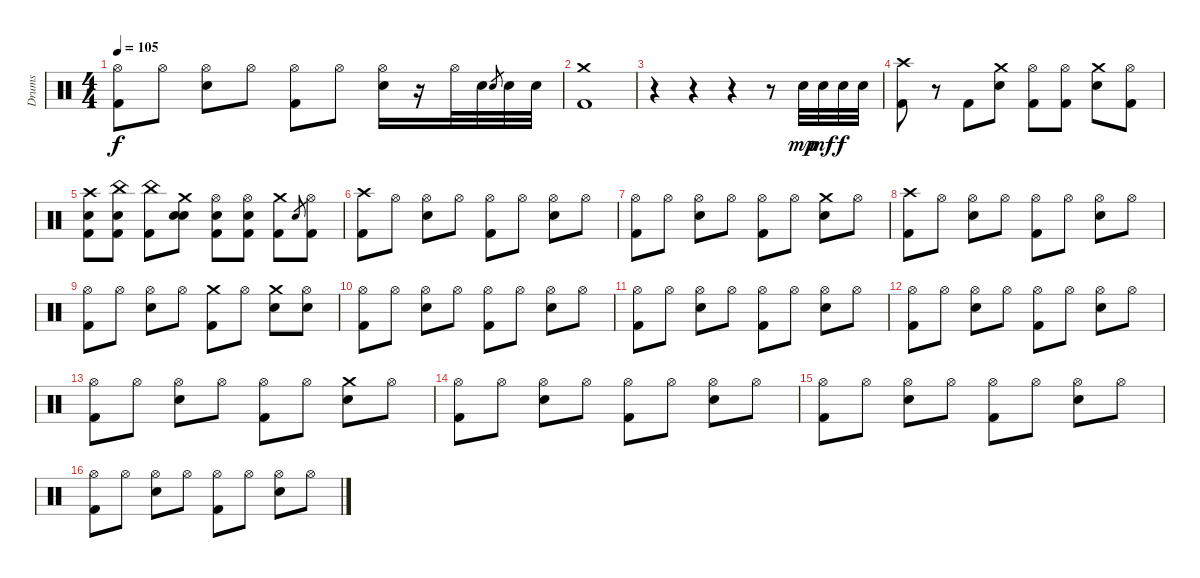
\track ("Drums" "Drums") {instrument percussion}
\staff {score}
\articulation defaults
\ts (4 4)
\tempo 105
\clef neutral
\ks c
("Hi-Hat (open)" "Kick (hit) 2").8{dy f} "Hi-Hat (open)".8 ("Hi-Hat (open)" "Snare (hit) 2").8 "Hi-Hat (open)".8 ("Hi-Hat (open)" "Kick (hit) 2").8 "Hi-Hat (open)".8 ("Hi-Hat (open)" "Snare (hit) 2").16 r.16 "Hi-Hat (open)".32 "Snare (hit) 2".32 "Snare (hit) 2".8{gr} "Snare (hit) 2".32 "Snare (hit) 2".32 |
("Crash medium (hit)" "Kick (hit) 2").1 |
r.4 r.4 r.4 r.8 "Snare (hit) 2".32{dy mp} "Snare (hit) 2".32{dy mf} "Snare (hit) 2".32{dy f} "Snare (hit) 2".32 |
("Crash high (hit)" "Kick (hit) 2").8 r.8 "Kick (hit) 2".8 ("Crash medium (hit)" "Snare (hit) 2").8 ("Hi-Hat (open)" "Kick (hit) 2").8 ("Hi-Hat (open)" "Kick (hit) 2").8 ("Crash medium (hit)" "Snare (hit) 2").8 ("Hi-Hat (open)" "Kick (hit) 2").8 |
("Crash high (hit)" "Snare (hit) 2" "Kick (hit) 2").8 ("China (hit)" "Snare (hit) 2" "Kick (hit) 2").8 ("China (hit)" "Kick (hit) 2").8 ("Crash medium (hit)" "Snare (hit) 2" "Snare (hit) 2").8 ("Hi-Hat (open)" "Snare (hit) 2" "Kick (hit) 2").8 ("Hi-Hat (open)" "Snare (hit) 2" "Kick (hit) 2").8 ("Crash medium (hit)" "Kick (hit) 2").8 "Snare (hit) 2".8{gr} ("Hi-Hat (open)" "Kick (hit) 2").8 |
("Crash high (hit)" "Kick (hit) 2").8 "Hi-Hat (open)".8 ("Hi-Hat (open)" "Snare (hit) 2").8 "Hi-Hat (open)".8 ("Hi-Hat (open)" "Kick (hit) 2").8 "Hi-Hat (open)".8 ("Hi-Hat (open)" "Snare (hit) 2").8 "Hi-Hat (open)".8 |
("Hi-Hat (open)" "Kick (hit) 2").8 "Hi-Hat (open)".8 ("Hi-Hat (open)" "Snare (hit) 2").8 "Hi-Hat (open)".8 ("Hi-Hat (open)" "Kick (hit) 2").8 "Hi-Hat (open)".8 ("Crash medium (hit)" "Snare (hit) 2").8 "Hi-Hat (open)".8 |
("Crash high (hit)" "Kick (hit) 2").8 "Hi-Hat (open)".8 ("Hi-Hat (open)" "Snare (hit) 2").8 "Hi-Hat (open)".8 ("Hi-Hat (open)" "Kick (hit) 2").8 "Hi-Hat (open)".8 ("Hi-Hat (open)" "Snare (hit) 2").8 "Hi-Hat (open)".8 |
("Hi-Hat (open)" "Kick (hit) 2").8 "Hi-Hat (open)".8 ("Hi-Hat (open)" "Snare (hit) 2").8 "Hi-Hat (open)".8 ("Crash medium (hit)" "Kick (hit) 2").8 "Hi-Hat (open)".8 ("Crash medium (hit)" "Snare (hit) 2").8 ("Hi-Hat (open)" "Snare (hit) 2").8 |
("Hi-Hat (open)" "Kick (hit) 2").8 "Hi-Hat (open)".8 ("Hi-Hat (open)" "Snare (hit) 2").8 "Hi-Hat (open)".8 ("Hi-Hat (open)" "Kick (hit) 2").8 "Hi-Hat (open)".8 ("Hi-Hat (open)" "Snare (hit) 2").8 "Hi-Hat (open)".8 |
("Hi-Hat (open)" "Kick (hit) 2").8 "Hi-Hat (open)".8 ("Hi-Hat (open)" "Snare (hit) 2").8 "Hi-Hat (open)".8 ("Hi-Hat (open)" "Kick (hit) 2").8 "Hi-Hat (open)".8 ("Hi-Hat (open)" "Snare (hit) 2").8 "Hi-Hat (open)".8 |
("Hi-Hat (open)" "Kick (hit) 2").8 "Hi-Hat (open)".8 ("Hi-Hat (open)" "Snare (hit) 2").8 "Hi-Hat (open)".8 ("Hi-Hat (open)" "Kick (hit) 2").8 "Hi-Hat (open)".8 ("Hi-Hat (open)" "Snare (hit) 2").8 "Hi-Hat (open)".8 |
("Hi-Hat (open)" "Kick (hit) 2").8 "Hi-Hat (open)".8 ("Hi-Hat (open)" "Snare (hit) 2").8 "Hi-Hat (open)".8 ("Hi-Hat (open)" "Kick (hit) 2").8 "Hi-Hat (open)".8 ("Crash medium (hit)" "Snare (hit) 2").8 "Hi-Hat (open)".8 |
("Hi-Hat (open)" "Kick (hit) 2").8 "Hi-Hat (open)".8 ("Hi-Hat (open)" "Snare (hit) 2").8 "Hi-Hat (open)".8 ("Hi-Hat (open)" "Kick (hit) 2").8 "Hi-Hat (open)".8 ("Hi-Hat (open)" "Snare (hit) 2").8 "Hi-Hat (open)".8 |
("Hi-Hat (open)" "Kick (hit) 2").8 "Hi-Hat (open)".8 ("Hi-Hat (open)" "Snare (hit) 2").8 "Hi-Hat (open)".8 ("Hi-Hat (open)" "Kick (hit) 2").8 "Hi-Hat (open)".8 ("Hi-Hat (open)" "Snare (hit) 2").8 "Hi-Hat (open)".8 |
("Hi-Hat (open)" "Kick (hit) 2").8 "Hi-Hat (open)".8 ("Hi-Hat (open)" "Snare (hit) 2").8 "Hi-Hat (open)".8 ("Hi-Hat (open)" "Kick (hit) 2").8 "Hi-Hat (open)".8 ("Hi-Hat (open)" "Snare (hit) 2").8 "Hi-Hat (open)".8
